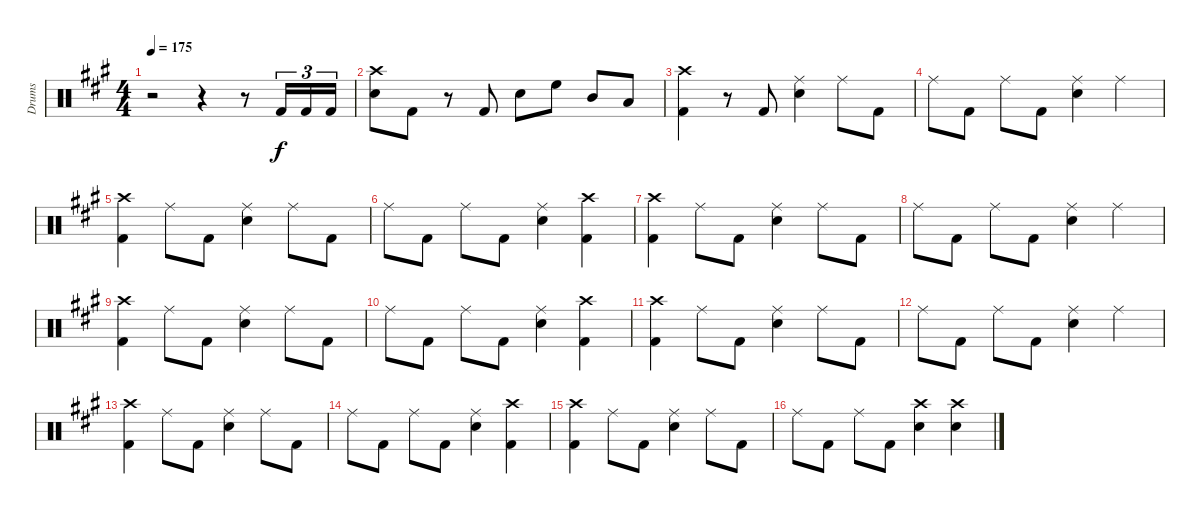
\track ("Drums" "Drums") {instrument percussion}
\staff {score}
\articulation defaults
\ts (4 4)
\tempo 175
\clef neutral
\ks a
r.2{dy f} r.4 r.8 "Kick (hit) 2".16{tu (3 2)} "Kick (hit) 2".16{tu (3 2)} "Kick (hit) 2".16{tu (3 2)} |
("Crash high (hit)" "Snare (hit) 2").8 "Kick (hit) 2".8 r.8 "Kick (hit) 2".8 "Snare (hit) 2".8 "High Floor Tom (hit)".8 "Mid Tom (hit)".8 "Low Tom (hit)".8 |
("Crash high (hit)" "Kick (hit) 2").4 r.8 "Kick (hit) 2".8 ("Ride (middle)" "Snare (hit) 2").4 "Ride (middle)".8 "Kick (hit) 2".8 |
"Ride (middle)".8 "Kick (hit) 2".8 "Ride (middle)".8 "Kick (hit) 2".8 ("Ride (middle)" "Snare (hit) 2").4 "Ride (middle)".4 |
("Crash high (hit)" "Kick (hit) 2").4 "Ride (middle)".8 "Kick (hit) 2".8 ("Ride (middle)" "Snare (hit) 2").4 "Ride (middle)".8 "Kick (hit) 2".8 |
"Ride (middle)".8 "Kick (hit) 2".8 "Ride (middle)".8 "Kick (hit) 2".8 ("Ride (middle)" "Snare (hit) 2").4 ("Crash high (hit)" "Kick (hit) 2").4 |
("Crash high (hit)" "Kick (hit) 2").4 "Ride (middle)".8 "Kick (hit) 2".8 ("Ride (middle)" "Snare (hit) 2").4 "Ride (middle)".8 "Kick (hit) 2".8 |
"Ride (middle)".8 "Kick (hit) 2".8 "Ride (middle)".8 "Kick (hit) 2".8 ("Ride (middle)" "Snare (hit) 2").4 "Ride (middle)".4 |
("Crash high (hit)" "Kick (hit) 2").4 "Ride (middle)".8 "Kick (hit) 2".8 ("Ride (middle)" "Snare (hit) 2").4 "Ride (middle)".8 "Kick (hit) 2".8 |
"Ride (middle)".8 "Kick (hit) 2".8 "Ride (middle)".8 "Kick (hit) 2".8 ("Ride (middle)" "Snare (hit) 2").4 ("Crash high (hit)" "Kick (hit) 2").4 |
("Crash high (hit)" "Kick (hit) 2").4 "Ride (middle)".8 "Kick (hit) 2".8 ("Ride (middle)" "Snare (hit) 2").4 "Ride (middle)".8 "Kick (hit) 2".8 |
"Ride (middle)".8 "Kick (hit) 2".8 "Ride (middle)".8 "Kick (hit) 2".8 ("Ride (middle)" "Snare (hit) 2").4 "Ride (middle)".4 |
("Crash high (hit)" "Kick (hit) 2").4 "Ride (middle)".8 "Kick (hit) 2".8 ("Ride (middle)" "Snare (hit) 2").4 "Ride (middle)".8 "Kick (hit) 2".8 |
"Ride (middle)".8 "Kick (hit) 2".8 "Ride (middle)".8 "Kick (hit) 2".8 ("Ride (middle)" "Snare (hit) 2").4 ("Crash high (hit)" "Kick (hit) 2").4 |
("Crash high (hit)" "Kick (hit) 2").4 "Ride (middle)".8 "Kick (hit) 2".8 ("Ride (middle)" "Snare (hit) 2").4 "Ride (middle)".8 "Kick (hit) 2".8 |
"Ride (middle)".8 "Kick (hit) 2".8 "Ride (middle)".8 "Kick (hit) 2".8 ("Crash high (hit)" "Snare (hit) 2").4 ("Crash high (hit)" "Snare (hit) 2").4
